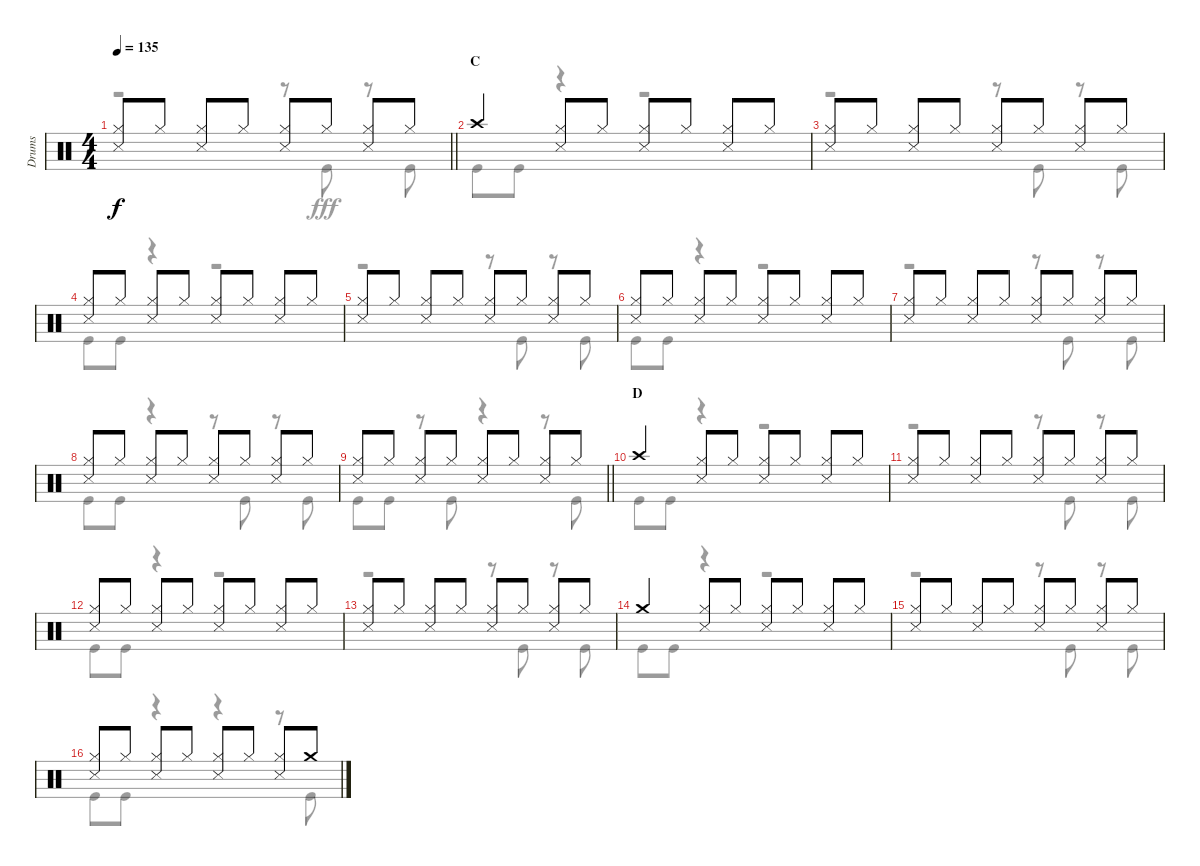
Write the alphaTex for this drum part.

\track ("Drums" "Drums") {instrument percussion}
\staff {score}
\articulation defaults
\voice
\ts (4 4)
\tempo 135
\clef neutral
\barLineRight lightlight
\ks c
("Hi-Hat (closed)" "Snare (side stick) 3").8{dy f} "Hi-Hat (closed)".8 ("Hi-Hat (closed)" "Snare (side stick) 3").8 "Hi-Hat (closed)".8 ("Hi-Hat (closed)" "Snare (side stick) 3").8 "Hi-Hat (closed)".8 ("Hi-Hat (closed)" "Snare (side stick) 3").8 "Hi-Hat (closed)".8 |
\section ("" "C")
"Crash high (hit)".4 ("Hi-Hat (closed)" "Snare (side stick) 3").8 "Hi-Hat (closed)".8 ("Hi-Hat (closed)" "Snare (side stick) 3").8 "Hi-Hat (closed)".8 ("Hi-Hat (closed)" "Snare (side stick) 3").8 "Hi-Hat (closed)".8 |
("Hi-Hat (closed)" "Snare (side stick) 3").8 "Hi-Hat (closed)".8 ("Hi-Hat (closed)" "Snare (side stick) 3").8 "Hi-Hat (closed)".8 ("Hi-Hat (closed)" "Snare (side stick) 3").8 "Hi-Hat (closed)".8 ("Hi-Hat (closed)" "Snare (side stick) 3").8 "Hi-Hat (closed)".8 |
("Hi-Hat (closed)" "Snare (side stick) 3").8 "Hi-Hat (closed)".8 ("Hi-Hat (closed)" "Snare (side stick) 3").8 "Hi-Hat (closed)".8 ("Hi-Hat (closed)" "Snare (side stick) 3").8 "Hi-Hat (closed)".8 ("Hi-Hat (closed)" "Snare (side stick) 3").8 "Hi-Hat (closed)".8 |
("Hi-Hat (closed)" "Snare (side stick) 3").8 "Hi-Hat (closed)".8 ("Hi-Hat (closed)" "Snare (side stick) 3").8 "Hi-Hat (closed)".8 ("Hi-Hat (closed)" "Snare (side stick) 3").8 "Hi-Hat (closed)".8 ("Hi-Hat (closed)" "Snare (side stick) 3").8 "Hi-Hat (closed)".8 |
("Hi-Hat (closed)" "Snare (side stick) 3").8 "Hi-Hat (closed)".8 ("Hi-Hat (closed)" "Snare (side stick) 3").8 "Hi-Hat (closed)".8 ("Hi-Hat (closed)" "Snare (side stick) 3").8 "Hi-Hat (closed)".8 ("Hi-Hat (closed)" "Snare (side stick) 3").8 "Hi-Hat (closed)".8 |
("Hi-Hat (closed)" "Snare (side stick) 3").8 "Hi-Hat (closed)".8 ("Hi-Hat (closed)" "Snare (side stick) 3").8 "Hi-Hat (closed)".8 ("Hi-Hat (closed)" "Snare (side stick) 3").8 "Hi-Hat (closed)".8 ("Hi-Hat (closed)" "Snare (side stick) 3").8 "Hi-Hat (closed)".8 |
("Hi-Hat (closed)" "Snare (side stick) 3").8 "Hi-Hat (closed)".8 ("Hi-Hat (closed)" "Snare (side stick) 3").8 "Hi-Hat (closed)".8 ("Hi-Hat (closed)" "Snare (side stick) 3").8 "Hi-Hat (closed)".8 ("Hi-Hat (closed)" "Snare (side stick) 3").8 "Hi-Hat (closed)".8 |
\barLineRight lightlight
("Hi-Hat (closed)" "Snare (side stick) 3").8 "Hi-Hat (closed)".8 ("Hi-Hat (closed)" "Snare (side stick) 3").8 "Hi-Hat (closed)".8 ("Hi-Hat (closed)" "Snare (side stick) 3").8 "Hi-Hat (closed)".8 ("Hi-Hat (closed)" "Snare (side stick) 3").8 "Hi-Hat (closed)".8 |
\section ("" "D")
"Crash high (hit)".4 ("Hi-Hat (closed)" "Snare (side stick) 3").8 "Hi-Hat (closed)".8 ("Hi-Hat (closed)" "Snare (side stick) 3").8 "Hi-Hat (closed)".8 ("Hi-Hat (closed)" "Snare (side stick) 3").8 "Hi-Hat (closed)".8 |
("Hi-Hat (closed)" "Snare (side stick) 3").8 "Hi-Hat (closed)".8 ("Hi-Hat (closed)" "Snare (side stick) 3").8 "Hi-Hat (closed)".8 ("Hi-Hat (closed)" "Snare (side stick) 3").8 "Hi-Hat (closed)".8 ("Hi-Hat (closed)" "Snare (side stick) 3").8 "Hi-Hat (closed)".8 |
("Hi-Hat (closed)" "Snare (side stick) 3").8 "Hi-Hat (closed)".8 ("Hi-Hat (closed)" "Snare (side stick) 3").8 "Hi-Hat (closed)".8 ("Hi-Hat (closed)" "Snare (side stick) 3").8 "Hi-Hat (closed)".8 ("Hi-Hat (closed)" "Snare (side stick) 3").8 "Hi-Hat (closed)".8 |
("Hi-Hat (closed)" "Snare (side stick) 3").8 "Hi-Hat (closed)".8 ("Hi-Hat (closed)" "Snare (side stick) 3").8 "Hi-Hat (closed)".8 ("Hi-Hat (closed)" "Snare (side stick) 3").8 "Hi-Hat (closed)".8 ("Hi-Hat (closed)" "Snare (side stick) 3").8 "Hi-Hat (closed)".8 |
"Crash medium (hit)".4 ("Hi-Hat (closed)" "Snare (side stick) 3").8 "Hi-Hat (closed)".8 ("Hi-Hat (closed)" "Snare (side stick) 3").8 "Hi-Hat (closed)".8 ("Hi-Hat (closed)" "Snare (side stick) 3").8 "Hi-Hat (closed)".8 |
("Hi-Hat (closed)" "Snare (side stick) 3").8 "Hi-Hat (closed)".8 ("Hi-Hat (closed)" "Snare (side stick) 3").8 "Hi-Hat (closed)".8 ("Hi-Hat (closed)" "Snare (side stick) 3").8 "Hi-Hat (closed)".8 ("Hi-Hat (closed)" "Snare (side stick) 3").8 "Hi-Hat (closed)".8 |
("Hi-Hat (closed)" "Snare (side stick) 3").8 "Hi-Hat (closed)".8 ("Hi-Hat (closed)" "Snare (side stick) 3").8 "Hi-Hat (closed)".8 ("Hi-Hat (closed)" "Snare (side stick) 3").8 "Hi-Hat (closed)".8 ("Hi-Hat (closed)" "Snare (side stick) 3").8 "Crash medium (hit)".8
\voice
\clef neutral
\ottava regular
\simile none
\barLineRight lightlight
\ks c
r.2{dy fff} r.8 "Kick (hit)".8 r.8 "Kick (hit)".8 |
"Kick (hit)".8 "Kick (hit)".8 r.4 r.2 |
r.2 r.8 "Kick (hit)".8 r.8 "Kick (hit)".8 |
"Kick (hit)".8 "Kick (hit)".8 r.4 r.2 |
r.2 r.8 "Kick (hit)".8 r.8 "Kick (hit)".8 |
"Kick (hit)".8 "Kick (hit)".8 r.4 r.2 |
r.2 r.8 "Kick (hit)".8 r.8 "Kick (hit)".8 |
"Kick (hit)".8 "Kick (hit)".8 r.4 r.8 "Kick (hit)".8 r.8 "Kick (hit)".8 |
\barLineRight lightlight "Kick (hit)".8 "Kick (hit)".8
r.8 "Kick (hit)".8 r.4 r.8 "Kick (hit)".8 |
"Kick (hit)".8 "Kick (hit)".8 r.4 r.2 |
r.2 r.8 "Kick (hit)".8 r.8 "Kick (hit)".8 |
"Kick (hit)".8 "Kick (hit)".8 r.4 r.2 |
r.2 r.8 "Kick (hit)".8 r.8 "Kick (hit)".8 |
"Kick (hit)".8 "Kick (hit)".8 r.4 r.2 |
r.2 r.8 "Kick (hit)".8 r.8 "Kick (hit)".8 |
"Kick (hit)".8 "Kick (hit)".8 r.4 r.4 r.8 "Kick (hit)".8
